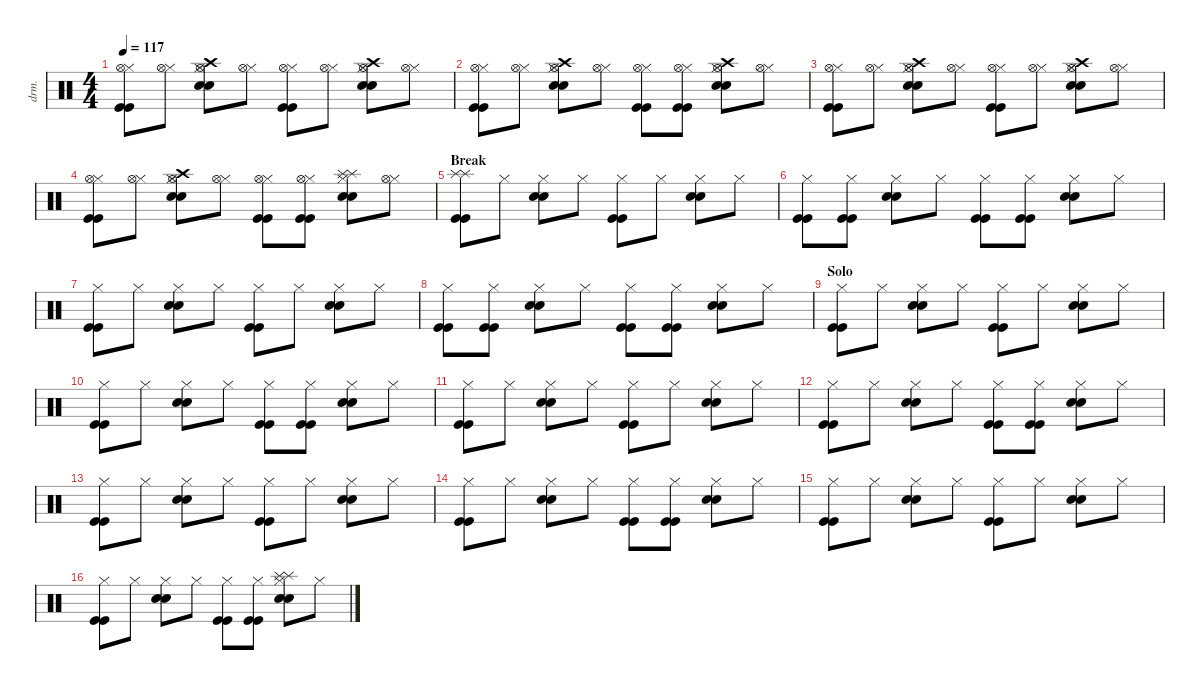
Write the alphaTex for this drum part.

\defaultSystemsLayout 4
\hideDynamics
\bracketExtendMode nobrackets
\otherSystemsTrackNameOrientation horizontal
\track ("Drums" "drm.") {instrument percussion}
\staff {score}
\articulation defaults
\ts (4 4)
\tempo 117
\clef neutral
\ks c
("Kick (hit)" "Kick (hit)" "Hi-Hat (closed)" "Hi-Hat (open)").8{dy f beam Down} ("Hi-Hat (closed)" "Hi-Hat (open)").8{beam Down} ("Snare (hit) 2" "Snare (hit) 2" "Hi-Hat (closed)" "Hi-Hat (open)" "Crash high (hit)").8{beam Down} ("Hi-Hat (closed)" "Hi-Hat (open)").8{beam Down} ("Kick (hit)" "Kick (hit)" "Hi-Hat (closed)" "Hi-Hat (open)").8{beam Down} ("Hi-Hat (closed)" "Hi-Hat (open)").8{beam Down} ("Snare (hit) 2" "Snare (hit) 2" "Hi-Hat (closed)" "Hi-Hat (open)" "Crash high (hit)").8{beam Down} ("Hi-Hat (closed)" "Hi-Hat (open)").8{beam Down} |
("Kick (hit)" "Kick (hit)" "Hi-Hat (closed)" "Hi-Hat (open)").8{beam Down} ("Hi-Hat (closed)" "Hi-Hat (open)").8{beam Down} ("Snare (hit) 2" "Snare (hit) 2" "Hi-Hat (closed)" "Hi-Hat (open)" "Crash high (hit)").8{beam Down} ("Hi-Hat (closed)" "Hi-Hat (open)").8{beam Down} ("Kick (hit)" "Kick (hit)" "Hi-Hat (closed)" "Hi-Hat (open)").8{beam Down} ("Kick (hit)" "Kick (hit)" "Hi-Hat (closed)" "Hi-Hat (open)").8{beam Down} ("Snare (hit) 2" "Snare (hit) 2" "Hi-Hat (closed)" "Hi-Hat (open)" "Crash high (hit)").8{beam Down} ("Hi-Hat (closed)" "Hi-Hat (open)").8{beam Down} |
("Kick (hit)" "Kick (hit)" "Hi-Hat (closed)" "Hi-Hat (open)").8{beam Down} ("Hi-Hat (closed)" "Hi-Hat (open)").8{beam Down} ("Snare (hit) 2" "Snare (hit) 2" "Hi-Hat (closed)" "Hi-Hat (open)" "Crash high (hit)").8{beam Down} ("Hi-Hat (closed)" "Hi-Hat (open)").8{beam Down} ("Kick (hit)" "Kick (hit)" "Hi-Hat (closed)" "Hi-Hat (open)").8{beam Down} ("Hi-Hat (closed)" "Hi-Hat (open)").8{beam Down} ("Snare (hit) 2" "Snare (hit) 2" "Hi-Hat (closed)" "Hi-Hat (open)" "Crash high (hit)").8{beam Down} ("Hi-Hat (closed)" "Hi-Hat (open)").8{beam Down} |
("Kick (hit)" "Kick (hit)" "Hi-Hat (closed)" "Hi-Hat (open)").8{beam Down} ("Hi-Hat (closed)" "Hi-Hat (open)").8{beam Down} ("Snare (hit) 2" "Snare (hit) 2" "Hi-Hat (closed)" "Hi-Hat (open)" "Crash high (hit)").8{beam Down} ("Hi-Hat (closed)" "Hi-Hat (open)").8{beam Down} ("Kick (hit)" "Kick (hit)" "Hi-Hat (closed)" "Hi-Hat (open)").8{beam Down} ("Kick (hit)" "Kick (hit)" "Hi-Hat (closed)" "Hi-Hat (open)").8{beam Down} ("Snare (hit) 2" "Snare (hit) 2" "Hi-Hat (closed)" "Splash (hit)" "Splash (hit)").8{dy ff beam Down} ("Hi-Hat (closed)" "Hi-Hat (open)").8{dy f beam Down} |
\section ("" "Break")
("Kick (hit)" "Kick (hit)" "Splash (hit)" "Splash (hit)").8{dy fff beam Down} "Hi-Hat (closed)".8{dy f beam Down} ("Snare (hit) 2" "Snare (hit) 2" "Hi-Hat (closed)").8{dy mf beam Down} "Hi-Hat (closed)".8{dy f beam Down} ("Kick (hit)" "Kick (hit)" "Hi-Hat (closed)").8{beam Down} "Hi-Hat (closed)".8{beam Down} ("Snare (hit) 2" "Snare (hit) 2" "Hi-Hat (closed)").8{dy mf beam Down} "Hi-Hat (closed)".8{dy f beam Down} |
("Kick (hit)" "Kick (hit)" "Hi-Hat (closed)").8{beam Down} ("Kick (hit)" "Kick (hit)" "Hi-Hat (closed)").8{beam Down} ("Snare (hit) 2" "Snare (hit) 2" "Hi-Hat (closed)").8{dy mf beam Down} "Hi-Hat (closed)".8{dy f beam Down} ("Kick (hit)" "Kick (hit)" "Hi-Hat (closed)").8{beam Down} ("Kick (hit)" "Kick (hit)" "Hi-Hat (closed)").8{beam Down} ("Snare (hit) 2" "Snare (hit) 2" "Hi-Hat (closed)").8{dy mf beam Down} "Hi-Hat (closed)".8{dy f beam Down} |
("Kick (hit)" "Kick (hit)" "Hi-Hat (closed)").8{beam Down} "Hi-Hat (closed)".8{beam Down} ("Snare (hit) 2" "Snare (hit) 2" "Hi-Hat (closed)").8{dy mf beam Down} "Hi-Hat (closed)".8{dy f beam Down} ("Kick (hit)" "Kick (hit)" "Hi-Hat (closed)").8{beam Down} "Hi-Hat (closed)".8{beam Down} ("Snare (hit) 2" "Snare (hit) 2" "Hi-Hat (closed)").8{dy mf beam Down} "Hi-Hat (closed)".8{dy f beam Down} |
("Kick (hit)" "Kick (hit)" "Hi-Hat (closed)").8{beam Down} ("Kick (hit)" "Kick (hit)" "Hi-Hat (closed)").8{beam Down} ("Snare (hit) 2" "Snare (hit) 2" "Hi-Hat (closed)").8{dy mf beam Down} "Hi-Hat (closed)".8{dy f beam Down} ("Kick (hit)" "Kick (hit)" "Hi-Hat (closed)").8{beam Down} ("Kick (hit)" "Kick (hit)" "Hi-Hat (closed)").8{beam Down} ("Snare (hit) 2" "Snare (hit) 2" "Hi-Hat (closed)").8{dy mf beam Down} "Hi-Hat (closed)".8{dy f beam Down} |
\section ("" "Solo")
("Kick (hit)" "Kick (hit)" "Hi-Hat (closed)").8{beam Down} "Hi-Hat (closed)".8{beam Down} ("Snare (hit) 2" "Snare (hit) 2" "Hi-Hat (closed)").8{dy mf beam Down} "Hi-Hat (closed)".8{dy f beam Down} ("Kick (hit)" "Kick (hit)" "Hi-Hat (closed)").8{beam Down} "Hi-Hat (closed)".8{beam Down} ("Snare (hit) 2" "Snare (hit) 2" "Hi-Hat (closed)").8{dy mf beam Down} "Hi-Hat (closed)".8{dy f beam Down} |
("Kick (hit)" "Kick (hit)" "Hi-Hat (closed)").8{beam Down} "Hi-Hat (closed)".8{beam Down} ("Snare (hit) 2" "Snare (hit) 2" "Hi-Hat (closed)").8{dy mf beam Down} "Hi-Hat (closed)".8{dy f beam Down} ("Kick (hit)" "Kick (hit)" "Hi-Hat (closed)").8{beam Down} ("Kick (hit)" "Kick (hit)" "Hi-Hat (closed)").8{beam Down} ("Snare (hit) 2" "Snare (hit) 2" "Hi-Hat (closed)").8{dy mf beam Down} "Hi-Hat (closed)".8{dy f beam Down} |
("Kick (hit)" "Kick (hit)" "Hi-Hat (closed)").8{beam Down} "Hi-Hat (closed)".8{beam Down} ("Snare (hit) 2" "Snare (hit) 2" "Hi-Hat (closed)").8{dy mf beam Down} "Hi-Hat (closed)".8{dy f beam Down} ("Kick (hit)" "Kick (hit)" "Hi-Hat (closed)").8{beam Down} "Hi-Hat (closed)".8{beam Down} ("Snare (hit) 2" "Snare (hit) 2" "Hi-Hat (closed)").8{dy mf beam Down} "Hi-Hat (closed)".8{dy f beam Down} |
("Kick (hit)" "Kick (hit)" "Hi-Hat (closed)").8{beam Down} "Hi-Hat (closed)".8{beam Down} ("Snare (hit) 2" "Snare (hit) 2" "Hi-Hat (closed)").8{dy mf beam Down} "Hi-Hat (closed)".8{dy f beam Down} ("Kick (hit)" "Kick (hit)" "Hi-Hat (closed)").8{beam Down} ("Kick (hit)" "Kick (hit)" "Hi-Hat (closed)").8{beam Down} ("Snare (hit) 2" "Snare (hit) 2" "Hi-Hat (closed)").8{dy mf beam Down} "Hi-Hat (closed)".8{dy f beam Down} |
("Kick (hit)" "Kick (hit)" "Hi-Hat (closed)").8{beam Down} "Hi-Hat (closed)".8{beam Down} ("Snare (hit) 2" "Snare (hit) 2" "Hi-Hat (closed)").8{dy mf beam Down} "Hi-Hat (closed)".8{dy f beam Down} ("Kick (hit)" "Kick (hit)" "Hi-Hat (closed)").8{beam Down} "Hi-Hat (closed)".8{beam Down} ("Snare (hit) 2" "Snare (hit) 2" "Hi-Hat (closed)").8{dy mf beam Down} "Hi-Hat (closed)".8{dy f beam Down} |
("Kick (hit)" "Kick (hit)" "Hi-Hat (closed)").8{beam Down} "Hi-Hat (closed)".8{beam Down} ("Snare (hit) 2" "Snare (hit) 2" "Hi-Hat (closed)").8{dy mf beam Down} "Hi-Hat (closed)".8{dy f beam Down} ("Kick (hit)" "Kick (hit)" "Hi-Hat (closed)").8{beam Down} ("Kick (hit)" "Kick (hit)" "Hi-Hat (closed)").8{beam Down} ("Snare (hit) 2" "Snare (hit) 2" "Hi-Hat (closed)").8{dy mf beam Down} "Hi-Hat (closed)".8{dy f beam Down} |
("Kick (hit)" "Kick (hit)" "Hi-Hat (closed)").8{beam Down} "Hi-Hat (closed)".8{beam Down} ("Snare (hit) 2" "Snare (hit) 2" "Hi-Hat (closed)").8{dy mf beam Down} "Hi-Hat (closed)".8{dy f beam Down} ("Kick (hit)" "Kick (hit)" "Hi-Hat (closed)").8{beam Down} "Hi-Hat (closed)".8{beam Down} ("Snare (hit) 2" "Snare (hit) 2" "Hi-Hat (closed)").8{dy mf beam Down} "Hi-Hat (closed)".8{dy f beam Down} |
("Kick (hit)" "Kick (hit)" "Hi-Hat (closed)").8{beam Down} "Hi-Hat (closed)".8{beam Down} ("Snare (hit) 2" "Snare (hit) 2" "Hi-Hat (closed)").8{dy mf beam Down} "Hi-Hat (closed)".8{dy f beam Down} ("Kick (hit)" "Kick (hit)" "Hi-Hat (closed)").8{beam Down} ("Kick (hit)" "Kick (hit)" "Hi-Hat (closed)").8{beam Down} ("Snare (hit) 2" "Snare (hit) 2" "Hi-Hat (closed)" "Splash (hit)" "Splash (hit)").8{dy ff beam Down} "Hi-Hat (closed)".8{dy f beam Down}
